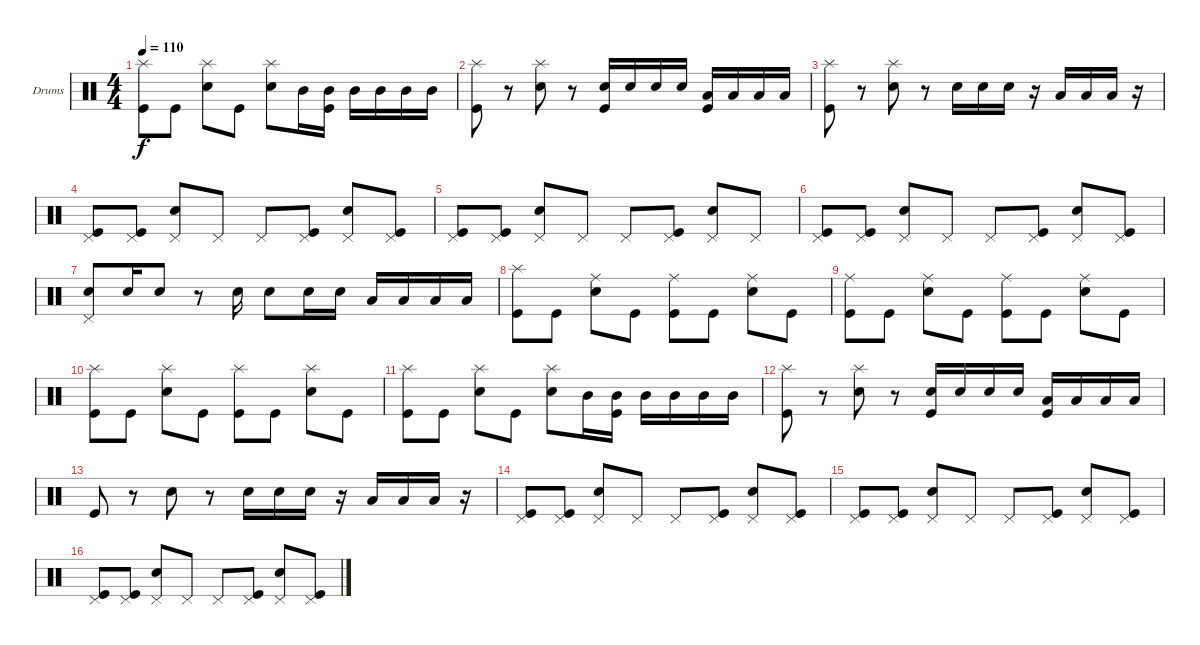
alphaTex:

\defaultSystemsLayout 4
\bracketExtendMode groupsimilarinstruments
\firstSystemTrackNameOrientation horizontal
\otherSystemsTrackNameOrientation horizontal
\track ("Drumkit" "Drums") {instrument percussion}
\staff {score}
\articulation defaults
\ts (4 4)
\tempo 110
\clef neutral
\ks c
("Kick (hit)" "Splash (hit)").8{dy f} "Kick (hit)".8 ("Snare (hit) 2" "Splash (hit)").8 "Kick (hit)".8 ("Snare (hit) 2" "Splash (hit)").8 "Mid Tom (hit)".16 ("Mid Tom (hit)" "Kick (hit)").16 "Mid Tom (hit)".16 "Mid Tom (hit)".16 "Mid Tom (hit)".16 "Mid Tom (hit)".16 |
("Splash (hit)" "Kick (hit)").8 r.8 ("Splash (hit)" "Snare (hit) 2").8 r.8 ("Kick (hit)" "Snare (hit) 2").16 "Snare (hit) 2".16 "Snare (hit) 2".16 "Snare (hit) 2".16 ("Kick (hit)" "Low Tom (hit)").16 "Low Tom (hit)".16 "Low Tom (hit)".16 "Low Tom (hit)".16 |
("Kick (hit)" "Splash (hit)").8 r.8 ("Snare (hit) 2" "Splash (hit)").8 r.8 "Snare (hit) 2".16 "Snare (hit) 2".16 "Snare (hit) 2".16 r.16 "Low Tom (hit)".16 "Low Tom (hit)".16 "Low Tom (hit)".16 r.16 |
("Pedal Hi-Hat (hit)" "Kick (hit)").8 ("Pedal Hi-Hat (hit)" "Kick (hit)").8 ("Pedal Hi-Hat (hit)" "Snare (hit) 2").8 "Pedal Hi-Hat (hit)".8 "Pedal Hi-Hat (hit)".8 ("Pedal Hi-Hat (hit)" "Kick (hit)").8 ("Pedal Hi-Hat (hit)" "Snare (hit) 2").8 ("Pedal Hi-Hat (hit)" "Kick (hit)").8 |
("Pedal Hi-Hat (hit)" "Kick (hit)").8 ("Pedal Hi-Hat (hit)" "Kick (hit)").8 ("Pedal Hi-Hat (hit)" "Snare (hit) 2").8 "Pedal Hi-Hat (hit)".8 "Pedal Hi-Hat (hit)".8 ("Pedal Hi-Hat (hit)" "Kick (hit)").8 ("Pedal Hi-Hat (hit)" "Snare (hit) 2").8 "Pedal Hi-Hat (hit)".8 |
("Pedal Hi-Hat (hit)" "Kick (hit)").8 ("Pedal Hi-Hat (hit)" "Kick (hit)").8 ("Pedal Hi-Hat (hit)" "Snare (hit) 2").8 "Pedal Hi-Hat (hit)".8 "Pedal Hi-Hat (hit)".8 ("Pedal Hi-Hat (hit)" "Kick (hit)").8 ("Pedal Hi-Hat (hit)" "Snare (hit) 2").8 ("Pedal Hi-Hat (hit)" "Kick (hit)").8 |
("Pedal Hi-Hat (hit)" "Snare (hit) 2").8 "Snare (hit) 2".16 "Snare (hit) 2".8 r.8 "Snare (hit) 2".16 "Snare (hit) 2".8 "Snare (hit) 2".16 "Snare (hit) 2".16 "Low Tom (hit)".16 "Low Tom (hit)".16 "Low Tom (hit)".16 "Low Tom (hit)".16 |
("Kick (hit)" "Splash (hit)").8 "Kick (hit)".8 ("Ride (middle)" "Snare (hit) 2").8 "Kick (hit)".8 ("Kick (hit)" "Ride (middle)").8 "Kick (hit)".8 ("Ride (middle)" "Snare (hit) 2").8 "Kick (hit)".8 |
("Kick (hit)" "Ride (middle)").8 "Kick (hit)".8 ("Ride (middle)" "Snare (hit) 2").8 "Kick (hit)".8 ("Kick (hit)" "Ride (middle)").8 "Kick (hit)".8 ("Ride (middle)" "Snare (hit) 2").8 "Kick (hit)".8 |
("Kick (hit)" "Splash (hit)").8 "Kick (hit)".8 ("Snare (hit) 2" "Splash (hit)").8 "Kick (hit)".8 ("Kick (hit)" "Splash (hit)").8 "Kick (hit)".8 ("Snare (hit) 2" "Splash (hit)").8 "Kick (hit)".8 |
("Kick (hit)" "Splash (hit)").8 "Kick (hit)".8 ("Snare (hit) 2" "Splash (hit)").8 "Kick (hit)".8 ("Snare (hit) 2" "Splash (hit)").8 "Mid Tom (hit)".16 ("Mid Tom (hit)" "Kick (hit)").16 "Mid Tom (hit)".16 "Mid Tom (hit)".16 "Mid Tom (hit)".16 "Mid Tom (hit)".16 |
("Splash (hit)" "Kick (hit)").8 r.8 ("Splash (hit)" "Snare (hit) 2").8 r.8 ("Kick (hit)" "Snare (hit) 2").16 "Snare (hit) 2".16 "Snare (hit) 2".16 "Snare (hit) 2".16 ("Kick (hit)" "Low Tom (hit)").16 "Low Tom (hit)".16 "Low Tom (hit)".16 "Low Tom (hit)".16 |
"Kick (hit)".8 r.8 "Snare (hit) 2".8 r.8 "Snare (hit) 2".16 "Snare (hit) 2".16 "Snare (hit) 2".16 r.16 "Low Tom (hit)".16 "Low Tom (hit)".16 "Low Tom (hit)".16 r.16 |
("Pedal Hi-Hat (hit)" "Kick (hit)").8 ("Pedal Hi-Hat (hit)" "Kick (hit)").8 ("Pedal Hi-Hat (hit)" "Snare (hit) 2").8 "Pedal Hi-Hat (hit)".8 "Pedal Hi-Hat (hit)".8 ("Pedal Hi-Hat (hit)" "Kick (hit)").8 ("Pedal Hi-Hat (hit)" "Snare (hit) 2").8 ("Pedal Hi-Hat (hit)" "Kick (hit)").8 |
("Pedal Hi-Hat (hit)" "Kick (hit)").8 ("Pedal Hi-Hat (hit)" "Kick (hit)").8 ("Pedal Hi-Hat (hit)" "Snare (hit) 2").8 "Pedal Hi-Hat (hit)".8 "Pedal Hi-Hat (hit)".8 ("Pedal Hi-Hat (hit)" "Kick (hit)").8 ("Pedal Hi-Hat (hit)" "Snare (hit) 2").8 ("Pedal Hi-Hat (hit)" "Kick (hit)").8 |
("Pedal Hi-Hat (hit)" "Kick (hit)").8 ("Pedal Hi-Hat (hit)" "Kick (hit)").8 ("Pedal Hi-Hat (hit)" "Snare (hit) 2").8 "Pedal Hi-Hat (hit)".8 "Pedal Hi-Hat (hit)".8 ("Pedal Hi-Hat (hit)" "Kick (hit)").8 ("Pedal Hi-Hat (hit)" "Snare (hit) 2").8 ("Pedal Hi-Hat (hit)" "Kick (hit)").8
